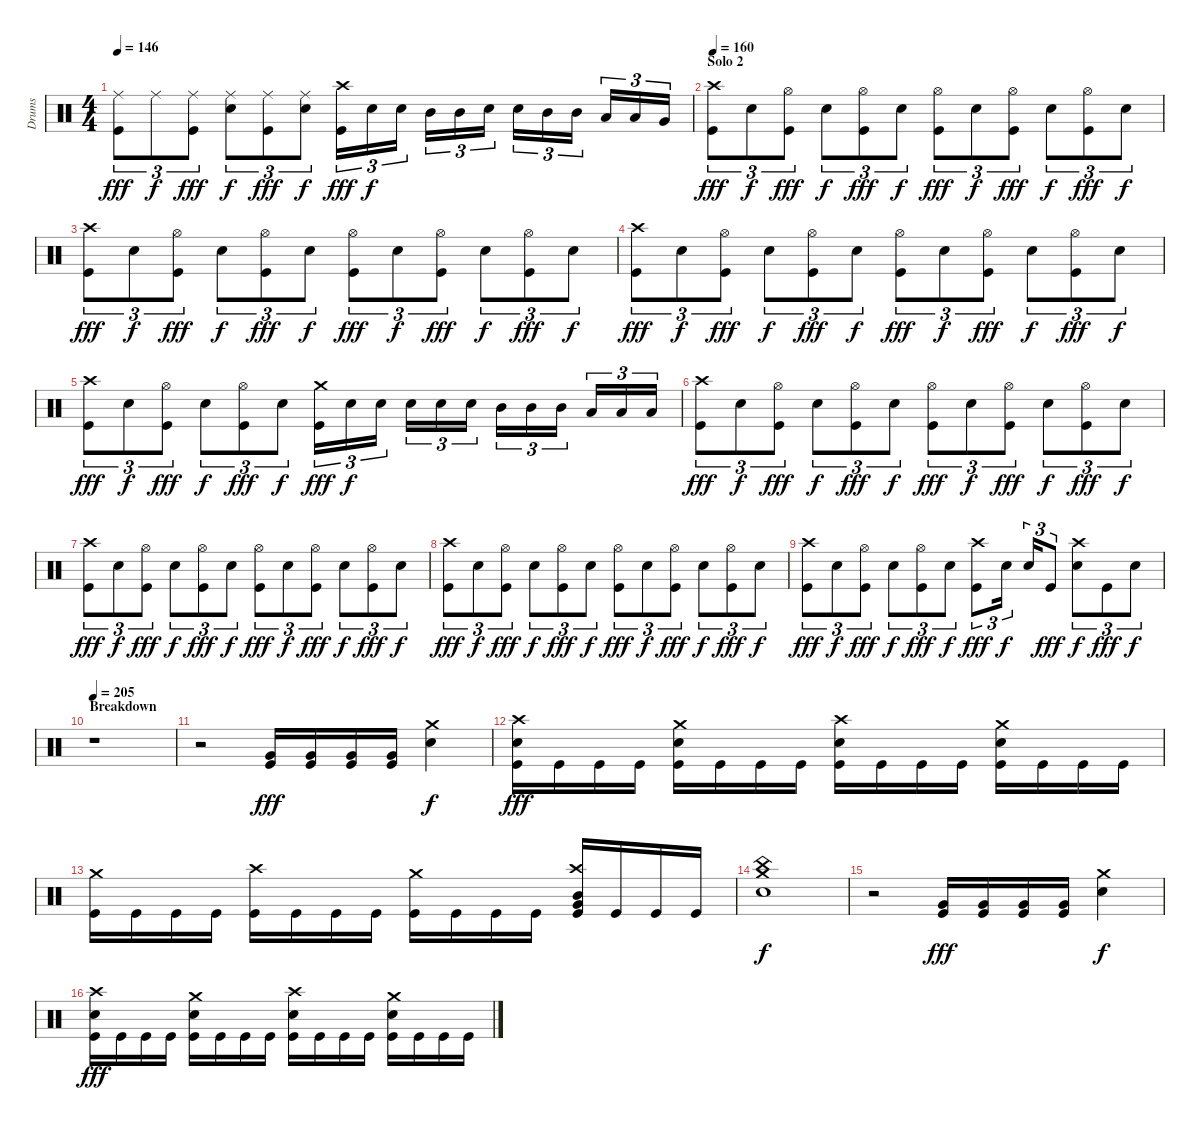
\track ("Drums" "Drums") {instrument percussion}
\staff {score}
\articulation defaults
\ts (4 4)
\tempo 146
\clef neutral
\ks c
("Ride (middle)" "Kick (hit)").8{tu (3 2) dy fff} "Ride (middle)".8{tu (3 2) dy f} ("Ride (middle)" "Kick (hit)").8{tu (3 2) dy fff} ("Ride (middle)" "Electric Snare (hit)").8{tu (3 2) dy f} ("Ride (middle)" "Kick (hit)").8{tu (3 2) dy fff} ("Ride (middle)" "Electric Snare (hit)").8{tu (3 2) dy f} ("Crash high (hit)" "Kick (hit)").16{tu (3 2) dy fff} "Electric Snare (hit)".16{tu (3 2) dy f} "Electric Snare (hit)".16{tu (3 2)} "Mid Tom (hit)".16{tu (3 2)} "Mid Tom (hit)".16{tu (3 2)} "Electric Snare (hit)".16{tu (3 2)} "Electric Snare (hit)".16{tu (3 2)} "Mid Tom (hit)".16{tu (3 2)} "Mid Tom (hit)".16{tu (3 2)} "Low Tom (hit)".16{tu (3 2)} "Low Tom (hit)".16{tu (3 2)} "Very Low Tom (hit)".16{tu (3 2)} |
\section ("" "Solo 2")
\tempo 160
("Crash high (hit)" "Kick (hit)").8{tu (3 2) dy fff} "Electric Snare (hit)".8{tu (3 2) dy f} ("Hi-Hat (open)" "Kick (hit)").8{tu (3 2) dy fff} "Electric Snare (hit)".8{tu (3 2) dy f} ("Hi-Hat (open)" "Kick (hit)").8{tu (3 2) dy fff} "Electric Snare (hit)".8{tu (3 2) dy f} ("Hi-Hat (open)" "Kick (hit)").8{tu (3 2) dy fff} "Electric Snare (hit)".8{tu (3 2) dy f} ("Hi-Hat (open)" "Kick (hit)").8{tu (3 2) dy fff} "Electric Snare (hit)".8{tu (3 2) dy f} ("Hi-Hat (open)" "Kick (hit)").8{tu (3 2) dy fff} "Electric Snare (hit)".8{tu (3 2) dy f} |
("Crash high (hit)" "Kick (hit)").8{tu (3 2) dy fff} "Electric Snare (hit)".8{tu (3 2) dy f} ("Hi-Hat (open)" "Kick (hit)").8{tu (3 2) dy fff} "Electric Snare (hit)".8{tu (3 2) dy f} ("Hi-Hat (open)" "Kick (hit)").8{tu (3 2) dy fff} "Electric Snare (hit)".8{tu (3 2) dy f} ("Hi-Hat (open)" "Kick (hit)").8{tu (3 2) dy fff} "Electric Snare (hit)".8{tu (3 2) dy f} ("Hi-Hat (open)" "Kick (hit)").8{tu (3 2) dy fff} "Electric Snare (hit)".8{tu (3 2) dy f} ("Hi-Hat (open)" "Kick (hit)").8{tu (3 2) dy fff} "Electric Snare (hit)".8{tu (3 2) dy f} |
("Crash high (hit)" "Kick (hit)").8{tu (3 2) dy fff} "Electric Snare (hit)".8{tu (3 2) dy f} ("Hi-Hat (open)" "Kick (hit)").8{tu (3 2) dy fff} "Electric Snare (hit)".8{tu (3 2) dy f} ("Hi-Hat (open)" "Kick (hit)").8{tu (3 2) dy fff} "Electric Snare (hit)".8{tu (3 2) dy f} ("Hi-Hat (open)" "Kick (hit)").8{tu (3 2) dy fff} "Electric Snare (hit)".8{tu (3 2) dy f} ("Hi-Hat (open)" "Kick (hit)").8{tu (3 2) dy fff} "Electric Snare (hit)".8{tu (3 2) dy f} ("Hi-Hat (open)" "Kick (hit)").8{tu (3 2) dy fff} "Electric Snare (hit)".8{tu (3 2) dy f} |
("Crash high (hit)" "Kick (hit)").8{tu (3 2) dy fff} "Electric Snare (hit)".8{tu (3 2) dy f} ("Hi-Hat (open)" "Kick (hit)").8{tu (3 2) dy fff} "Electric Snare (hit)".8{tu (3 2) dy f} ("Hi-Hat (open)" "Kick (hit)").8{tu (3 2) dy fff} "Electric Snare (hit)".8{tu (3 2) dy f} ("Crash medium (hit)" "Kick (hit)").16{tu (3 2) dy fff} "Electric Snare (hit)".16{tu (3 2) dy f} "Electric Snare (hit)".16{tu (3 2)} "Electric Snare (hit)".16{tu (3 2)} "Electric Snare (hit)".16{tu (3 2)} "Electric Snare (hit)".16{tu (3 2)} "Mid Tom (hit)".16{tu (3 2)} "Mid Tom (hit)".16{tu (3 2)} "Mid Tom (hit)".16{tu (3 2)} "Low Tom (hit)".16{tu (3 2)} "Low Tom (hit)".16{tu (3 2)} "Low Tom (hit)".16{tu (3 2)} |
("Crash high (hit)" "Kick (hit)").8{tu (3 2) dy fff} "Electric Snare (hit)".8{tu (3 2) dy f} ("Hi-Hat (open)" "Kick (hit)").8{tu (3 2) dy fff} "Electric Snare (hit)".8{tu (3 2) dy f} ("Hi-Hat (open)" "Kick (hit)").8{tu (3 2) dy fff} "Electric Snare (hit)".8{tu (3 2) dy f} ("Hi-Hat (open)" "Kick (hit)").8{tu (3 2) dy fff} "Electric Snare (hit)".8{tu (3 2) dy f} ("Hi-Hat (open)" "Kick (hit)").8{tu (3 2) dy fff} "Electric Snare (hit)".8{tu (3 2) dy f} ("Hi-Hat (open)" "Kick (hit)").8{tu (3 2) dy fff} "Electric Snare (hit)".8{tu (3 2) dy f} |
("Crash high (hit)" "Kick (hit)").8{tu (3 2) dy fff} "Electric Snare (hit)".8{tu (3 2) dy f} ("Hi-Hat (open)" "Kick (hit)").8{tu (3 2) dy fff} "Electric Snare (hit)".8{tu (3 2) dy f} ("Hi-Hat (open)" "Kick (hit)").8{tu (3 2) dy fff} "Electric Snare (hit)".8{tu (3 2) dy f} ("Hi-Hat (open)" "Kick (hit)").8{tu (3 2) dy fff} "Electric Snare (hit)".8{tu (3 2) dy f} ("Hi-Hat (open)" "Kick (hit)").8{tu (3 2) dy fff} "Electric Snare (hit)".8{tu (3 2) dy f} ("Hi-Hat (open)" "Kick (hit)").8{tu (3 2) dy fff} "Electric Snare (hit)".8{tu (3 2) dy f} |
("Crash high (hit)" "Kick (hit)").8{tu (3 2) dy fff} "Electric Snare (hit)".8{tu (3 2) dy f} ("Hi-Hat (open)" "Kick (hit)").8{tu (3 2) dy fff} "Electric Snare (hit)".8{tu (3 2) dy f} ("Hi-Hat (open)" "Kick (hit)").8{tu (3 2) dy fff} "Electric Snare (hit)".8{tu (3 2) dy f} ("Hi-Hat (open)" "Kick (hit)").8{tu (3 2) dy fff} "Electric Snare (hit)".8{tu (3 2) dy f} ("Hi-Hat (open)" "Kick (hit)").8{tu (3 2) dy fff} "Electric Snare (hit)".8{tu (3 2) dy f} ("Hi-Hat (open)" "Kick (hit)").8{tu (3 2) dy fff} "Electric Snare (hit)".8{tu (3 2) dy f} |
("Crash high (hit)" "Kick (hit)").8{tu (3 2) dy fff} "Electric Snare (hit)".8{tu (3 2) dy f} ("Hi-Hat (open)" "Kick (hit)").8{tu (3 2) dy fff} "Electric Snare (hit)".8{tu (3 2) dy f} ("Hi-Hat (open)" "Kick (hit)").8{tu (3 2) dy fff} "Electric Snare (hit)".8{tu (3 2) dy f} ("Crash high (hit)" "Kick (hit)").8{tu (3 2) dy fff} "Electric Snare (hit)".16{tu (3 2) dy f} "Electric Snare (hit)".16{tu (3 2)} "Kick (hit)".8{tu (3 2) dy fff} ("Crash high (hit)" "Electric Snare (hit)").8{tu (3 2) dy f} "Kick (hit)".8{tu (3 2) dy fff} "Electric Snare (hit)".8{tu (3 2) dy f} |
\section ("" "Breakdown")
\tempo 205
r.1 |
r.2 ("Very Low Tom (hit)" "Kick (hit)").16{dy fff} ("Very Low Tom (hit)" "Kick (hit)").16 ("Very Low Tom (hit)" "Kick (hit)").16 ("Very Low Tom (hit)" "Kick (hit)").16 ("Crash medium (hit)" "Electric Snare (hit)").4{dy f} |
("Crash high (hit)" "Electric Snare (hit)" "Kick (hit)").16{dy fff} "Kick (hit)".16 "Kick (hit)".16 "Kick (hit)".16 ("Crash medium (hit)" "Electric Snare (hit)" "Kick (hit)").16 "Kick (hit)".16 "Kick (hit)".16 "Kick (hit)".16 ("Crash high (hit)" "Electric Snare (hit)" "Kick (hit)").16 "Kick (hit)".16 "Kick (hit)".16 "Kick (hit)".16 ("Crash medium (hit)" "Electric Snare (hit)" "Kick (hit)").16 "Kick (hit)".16 "Kick (hit)".16 "Kick (hit)".16 |
("Crash medium (hit)" "Kick (hit)").16 "Kick (hit)".16 "Kick (hit)".16 "Kick (hit)".16 ("Crash high (hit)" "Kick (hit)").16 "Kick (hit)".16 "Kick (hit)".16 "Kick (hit)".16 ("Crash medium (hit)" "Kick (hit)").16 "Kick (hit)".16 "Kick (hit)".16 "Kick (hit)".16 ("Crash high (hit)" "Mid Tom (hit)" "Very Low Tom (hit)" "Kick (hit)").16 "Kick (hit)".16 "Kick (hit)".16 "Kick (hit)".16 |
("Crash medium (hit)" "China (hit)" "Electric Snare (hit)").1{dy f} |
r.2 ("Very Low Tom (hit)" "Kick (hit)").16{dy fff} ("Very Low Tom (hit)" "Kick (hit)").16 ("Very Low Tom (hit)" "Kick (hit)").16 ("Very Low Tom (hit)" "Kick (hit)").16 ("Crash medium (hit)" "Electric Snare (hit)").4{dy f} |
("Crash high (hit)" "Electric Snare (hit)" "Kick (hit)").16{dy fff} "Kick (hit)".16 "Kick (hit)".16 "Kick (hit)".16 ("Crash medium (hit)" "Electric Snare (hit)" "Kick (hit)").16 "Kick (hit)".16 "Kick (hit)".16 "Kick (hit)".16 ("Crash high (hit)" "Electric Snare (hit)" "Kick (hit)").16 "Kick (hit)".16 "Kick (hit)".16 "Kick (hit)".16 ("Crash medium (hit)" "Electric Snare (hit)" "Kick (hit)").16 "Kick (hit)".16 "Kick (hit)".16 "Kick (hit)".16
